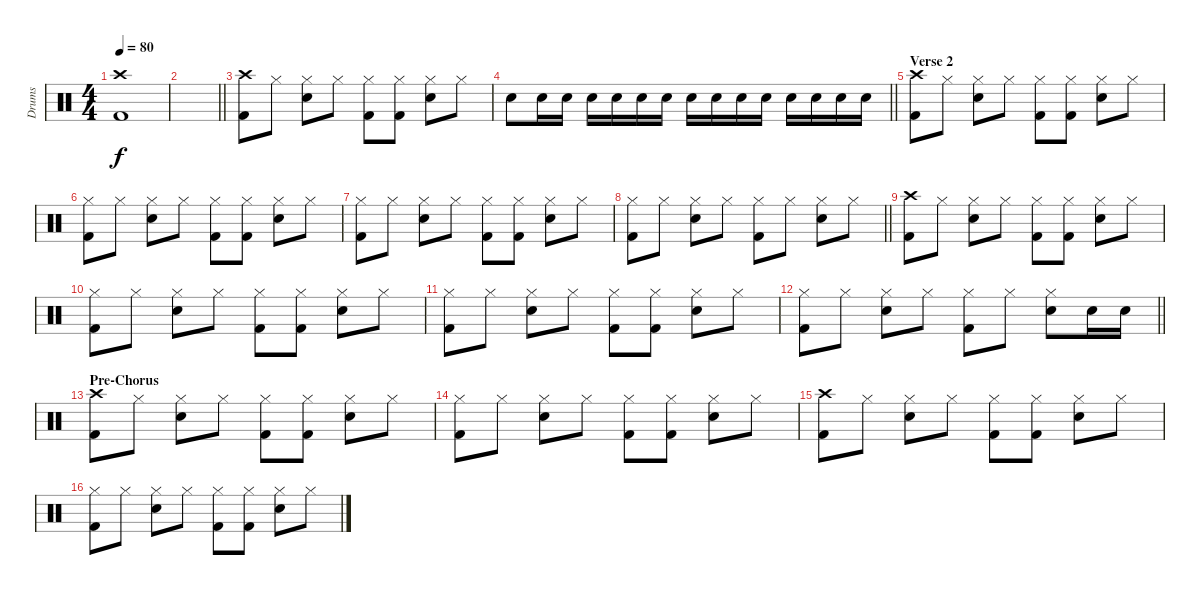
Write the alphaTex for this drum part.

\track ("Drums" "Drums") {instrument percussion}
\staff {score}
\articulation defaults
\ts (4 4)
\tempo 80
\clef neutral
\ks c
("Crash high (hit)" "Kick (hit) 2").1{dy f} |
\barLineRight lightlight
|
\section ("" " ")
("Crash high (hit)" "Kick (hit) 2").8 "Hi-Hat (closed)".8 ("Hi-Hat (closed)" "Electric Snare (hit)").8 "Hi-Hat (closed)".8 ("Hi-Hat (closed)" "Kick (hit) 2").8 ("Hi-Hat (closed)" "Kick (hit) 2").8 ("Hi-Hat (closed)" "Electric Snare (hit)").8 "Hi-Hat (closed)".8 |
\barLineRight lightlight "Electric Snare (hit)".8{volume 11} "Electric Snare (hit)".16{volume 16} "Electric Snare (hit)".16 "Electric Snare (hit)".16 "Electric Snare (hit)".16 "Electric Snare (hit)".16 "Electric Snare (hit)".16 "Electric Snare (hit)".16 "Electric Snare (hit)".16 "Electric Snare (hit)".16 "Electric Snare (hit)".16 "Electric Snare (hit)".16 "Electric Snare (hit)".16 "Electric Snare (hit)".16 "Electric Snare (hit)".16
|
\section ("" "Verse 2 ")
("Crash high (hit)" "Kick (hit) 2").8 "Hi-Hat (closed)".8 ("Hi-Hat (closed)" "Electric Snare (hit)").8 "Hi-Hat (closed)".8 ("Hi-Hat (closed)" "Kick (hit) 2").8 ("Hi-Hat (closed)" "Kick (hit) 2").8 ("Hi-Hat (closed)" "Electric Snare (hit)").8 "Hi-Hat (closed)".8 |
("Hi-Hat (closed)" "Kick (hit) 2").8 "Hi-Hat (closed)".8 ("Hi-Hat (closed)" "Electric Snare (hit)").8 "Hi-Hat (closed)".8 ("Hi-Hat (closed)" "Kick (hit) 2").8 ("Hi-Hat (closed)" "Kick (hit) 2").8 ("Hi-Hat (closed)" "Electric Snare (hit)").8 "Hi-Hat (closed)".8 |
("Hi-Hat (closed)" "Kick (hit) 2").8 "Hi-Hat (closed)".8 ("Hi-Hat (closed)" "Electric Snare (hit)").8 "Hi-Hat (closed)".8 ("Hi-Hat (closed)" "Kick (hit) 2").8 ("Hi-Hat (closed)" "Kick (hit) 2").8 ("Hi-Hat (closed)" "Electric Snare (hit)").8 "Hi-Hat (closed)".8 |
\barLineRight lightlight
("Hi-Hat (closed)" "Kick (hit) 2").8 "Hi-Hat (closed)".8 ("Hi-Hat (closed)" "Electric Snare (hit)").8 "Hi-Hat (closed)".8 ("Hi-Hat (closed)" "Kick (hit) 2").8 "Hi-Hat (closed)".8 ("Hi-Hat (closed)" "Electric Snare (hit)").8 "Hi-Hat (closed)".8 |
("Crash high (hit)" "Kick (hit) 2").8 "Hi-Hat (closed)".8 ("Hi-Hat (closed)" "Electric Snare (hit)").8 "Hi-Hat (closed)".8 ("Hi-Hat (closed)" "Kick (hit) 2").8 ("Hi-Hat (closed)" "Kick (hit) 2").8 ("Hi-Hat (closed)" "Electric Snare (hit)").8 "Hi-Hat (closed)".8 |
("Hi-Hat (closed)" "Kick (hit) 2").8 "Hi-Hat (closed)".8 ("Hi-Hat (closed)" "Electric Snare (hit)").8 "Hi-Hat (closed)".8 ("Hi-Hat (closed)" "Kick (hit) 2").8 ("Hi-Hat (closed)" "Kick (hit) 2").8 ("Hi-Hat (closed)" "Electric Snare (hit)").8 "Hi-Hat (closed)".8 |
("Hi-Hat (closed)" "Kick (hit) 2").8 "Hi-Hat (closed)".8 ("Hi-Hat (closed)" "Electric Snare (hit)").8 "Hi-Hat (closed)".8 ("Hi-Hat (closed)" "Kick (hit) 2").8 ("Hi-Hat (closed)" "Kick (hit) 2").8 ("Hi-Hat (closed)" "Electric Snare (hit)").8 "Hi-Hat (closed)".8 |
\barLineRight lightlight
("Hi-Hat (closed)" "Kick (hit) 2").8 "Hi-Hat (closed)".8 ("Hi-Hat (closed)" "Electric Snare (hit)").8 "Hi-Hat (closed)".8 ("Hi-Hat (closed)" "Kick (hit) 2").8 "Hi-Hat (closed)".8 ("Hi-Hat (closed)" "Electric Snare (hit)").8 "Electric Snare (hit)".16 "Electric Snare (hit)".16 |
\section ("" "Pre-Chorus")
("Crash high (hit)" "Kick (hit) 2").8 "Hi-Hat (closed)".8 ("Hi-Hat (closed)" "Electric Snare (hit)").8 "Hi-Hat (closed)".8 ("Hi-Hat (closed)" "Kick (hit) 2").8 ("Hi-Hat (closed)" "Kick (hit) 2").8 ("Hi-Hat (closed)" "Electric Snare (hit)").8 "Hi-Hat (closed)".8 |
("Hi-Hat (closed)" "Kick (hit) 2").8 "Hi-Hat (closed)".8 ("Hi-Hat (closed)" "Electric Snare (hit)").8 "Hi-Hat (closed)".8 ("Hi-Hat (closed)" "Kick (hit) 2").8 ("Hi-Hat (closed)" "Kick (hit) 2").8 ("Hi-Hat (closed)" "Electric Snare (hit)").8 "Hi-Hat (closed)".8 |
("Crash high (hit)" "Kick (hit) 2").8 "Hi-Hat (closed)".8 ("Hi-Hat (closed)" "Electric Snare (hit)").8 "Hi-Hat (closed)".8 ("Hi-Hat (closed)" "Kick (hit) 2").8 ("Hi-Hat (closed)" "Kick (hit) 2").8 ("Hi-Hat (closed)" "Electric Snare (hit)").8 "Hi-Hat (closed)".8 |
("Hi-Hat (closed)" "Kick (hit) 2").8 "Hi-Hat (closed)".8 ("Hi-Hat (closed)" "Electric Snare (hit)").8 "Hi-Hat (closed)".8 ("Hi-Hat (closed)" "Kick (hit) 2").8 ("Hi-Hat (closed)" "Kick (hit) 2").8 ("Hi-Hat (closed)" "Electric Snare (hit)").8 "Hi-Hat (closed)".8
